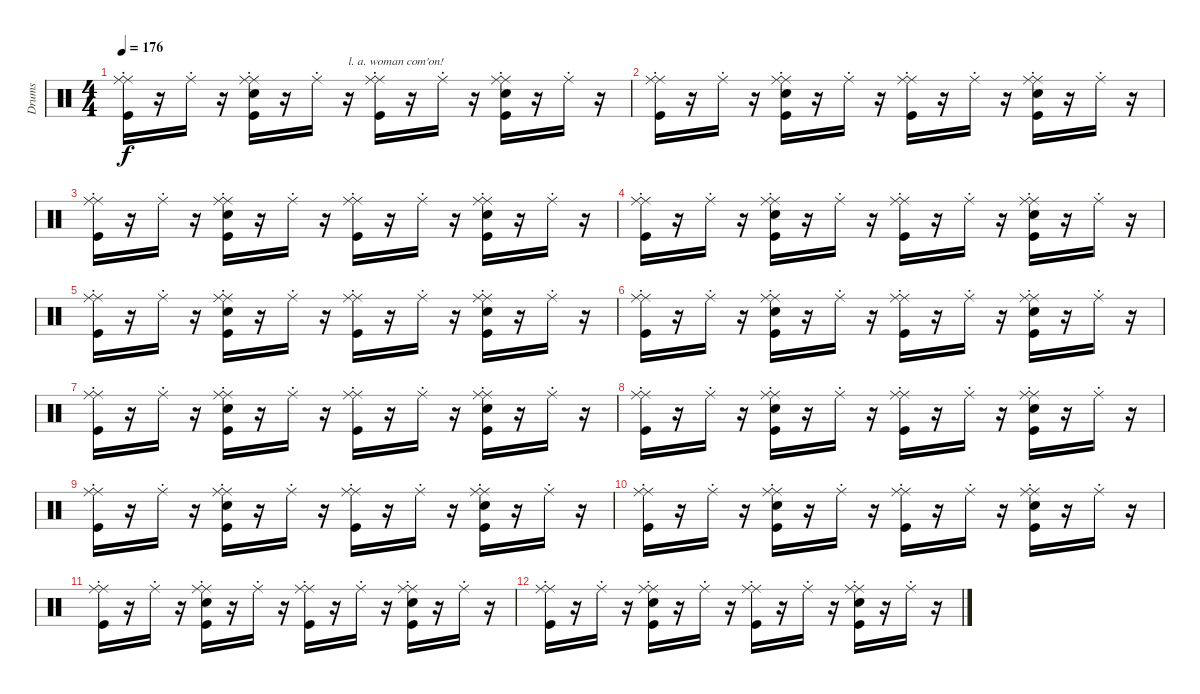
\track ("Drums" "Drums") {instrument percussion}
\staff {score}
\articulation defaults
\ts (4 4)
\tempo 176
\clef neutral
\ks c
("Ride (middle)" "Kick (hit)" "Ride (choke)").16{dy f} r.16 "Ride (choke)".16 r.16 ("Ride (middle)" "Kick (hit)" "Snare (hit) 2" "Ride (choke)").16 r.16 "Ride (choke)".16 r.16{txt "l. a. woman com'on!"} ("Ride (middle)" "Kick (hit)" "Ride (choke)").16 r.16 "Ride (choke)".16 r.16 ("Ride (middle)" "Kick (hit)" "Snare (hit) 2" "Ride (choke)").16 r.16 "Ride (choke)".16 r.16 |
("Ride (middle)" "Kick (hit)" "Ride (choke)").16 r.16 "Ride (choke)".16 r.16 ("Ride (middle)" "Kick (hit)" "Snare (hit) 2" "Ride (choke)").16 r.16 "Ride (choke)".16 r.16 ("Ride (middle)" "Kick (hit)" "Ride (choke)").16 r.16 "Ride (choke)".16 r.16 ("Ride (middle)" "Kick (hit)" "Snare (hit) 2" "Ride (choke)").16 r.16 "Ride (choke)".16 r.16 |
("Ride (middle)" "Kick (hit)" "Ride (choke)").16 r.16 "Ride (choke)".16 r.16 ("Ride (middle)" "Kick (hit)" "Snare (hit) 2" "Ride (choke)").16 r.16 "Ride (choke)".16 r.16 ("Ride (middle)" "Kick (hit)" "Ride (choke)").16 r.16 "Ride (choke)".16 r.16 ("Ride (middle)" "Kick (hit)" "Snare (hit) 2" "Ride (choke)").16 r.16 "Ride (choke)".16 r.16 |
("Ride (middle)" "Kick (hit)" "Ride (choke)").16 r.16 "Ride (choke)".16 r.16 ("Ride (middle)" "Kick (hit)" "Snare (hit) 2" "Ride (choke)").16 r.16 "Ride (choke)".16 r.16 ("Ride (middle)" "Kick (hit)" "Ride (choke)").16 r.16 "Ride (choke)".16 r.16 ("Ride (middle)" "Kick (hit)" "Snare (hit) 2" "Ride (choke)").16 r.16 "Ride (choke)".16 r.16 |
("Ride (middle)" "Kick (hit)" "Ride (choke)").16 r.16 "Ride (choke)".16 r.16 ("Ride (middle)" "Kick (hit)" "Snare (hit) 2" "Ride (choke)").16 r.16 "Ride (choke)".16 r.16 ("Ride (middle)" "Kick (hit)" "Ride (choke)").16 r.16 "Ride (choke)".16 r.16 ("Ride (middle)" "Kick (hit)" "Snare (hit) 2" "Ride (choke)").16 r.16 "Ride (choke)".16 r.16 |
("Ride (middle)" "Kick (hit)" "Ride (choke)").16 r.16 "Ride (choke)".16 r.16 ("Ride (middle)" "Kick (hit)" "Snare (hit) 2" "Ride (choke)").16 r.16 "Ride (choke)".16 r.16 ("Ride (middle)" "Kick (hit)" "Ride (choke)").16 r.16 "Ride (choke)".16 r.16 ("Ride (middle)" "Kick (hit)" "Snare (hit) 2" "Ride (choke)").16 r.16 "Ride (choke)".16 r.16 |
("Ride (middle)" "Kick (hit)" "Ride (choke)").16 r.16 "Ride (choke)".16 r.16 ("Ride (middle)" "Kick (hit)" "Snare (hit) 2" "Ride (choke)").16 r.16 "Ride (choke)".16 r.16 ("Ride (middle)" "Kick (hit)" "Ride (choke)").16 r.16 "Ride (choke)".16 r.16 ("Ride (middle)" "Kick (hit)" "Snare (hit) 2" "Ride (choke)").16 r.16 "Ride (choke)".16 r.16 |
("Ride (middle)" "Kick (hit)" "Ride (choke)").16 r.16 "Ride (choke)".16 r.16 ("Ride (middle)" "Kick (hit)" "Snare (hit) 2" "Ride (choke)").16 r.16 "Ride (choke)".16 r.16 ("Ride (middle)" "Kick (hit)" "Ride (choke)").16 r.16 "Ride (choke)".16 r.16 ("Ride (middle)" "Kick (hit)" "Snare (hit) 2" "Ride (choke)").16 r.16 "Ride (choke)".16 r.16 |
("Ride (middle)" "Kick (hit)" "Ride (choke)").16 r.16 "Ride (choke)".16 r.16 ("Ride (middle)" "Kick (hit)" "Snare (hit) 2" "Ride (choke)").16 r.16 "Ride (choke)".16 r.16 ("Ride (middle)" "Kick (hit)" "Ride (choke)").16 r.16 "Ride (choke)".16 r.16 ("Ride (middle)" "Kick (hit)" "Snare (hit) 2" "Ride (choke)").16 r.16 "Ride (choke)".16 r.16 |
("Ride (middle)" "Kick (hit)" "Ride (choke)").16 r.16 "Ride (choke)".16 r.16 ("Ride (middle)" "Kick (hit)" "Snare (hit) 2" "Ride (choke)").16 r.16 "Ride (choke)".16 r.16 ("Ride (middle)" "Kick (hit)" "Ride (choke)").16 r.16 "Ride (choke)".16 r.16 ("Ride (middle)" "Kick (hit)" "Snare (hit) 2" "Ride (choke)").16 r.16 "Ride (choke)".16 r.16 |
("Ride (middle)" "Kick (hit)" "Ride (choke)").16 r.16 "Ride (choke)".16 r.16 ("Ride (middle)" "Kick (hit)" "Snare (hit) 2" "Ride (choke)").16 r.16 "Ride (choke)".16 r.16 ("Ride (middle)" "Kick (hit)" "Ride (choke)").16 r.16 "Ride (choke)".16 r.16 ("Ride (middle)" "Kick (hit)" "Snare (hit) 2" "Ride (choke)").16 r.16 "Ride (choke)".16 r.16 |
("Ride (middle)" "Kick (hit)" "Ride (choke)").16 r.16 "Ride (choke)".16 r.16 ("Ride (middle)" "Kick (hit)" "Snare (hit) 2" "Ride (choke)").16 r.16 "Ride (choke)".16 r.16 ("Ride (middle)" "Kick (hit)" "Ride (choke)").16 r.16 "Ride (choke)".16 r.16 ("Ride (middle)" "Kick (hit)" "Snare (hit) 2" "Ride (choke)").16 r.16 "Ride (choke)".16 r.16
